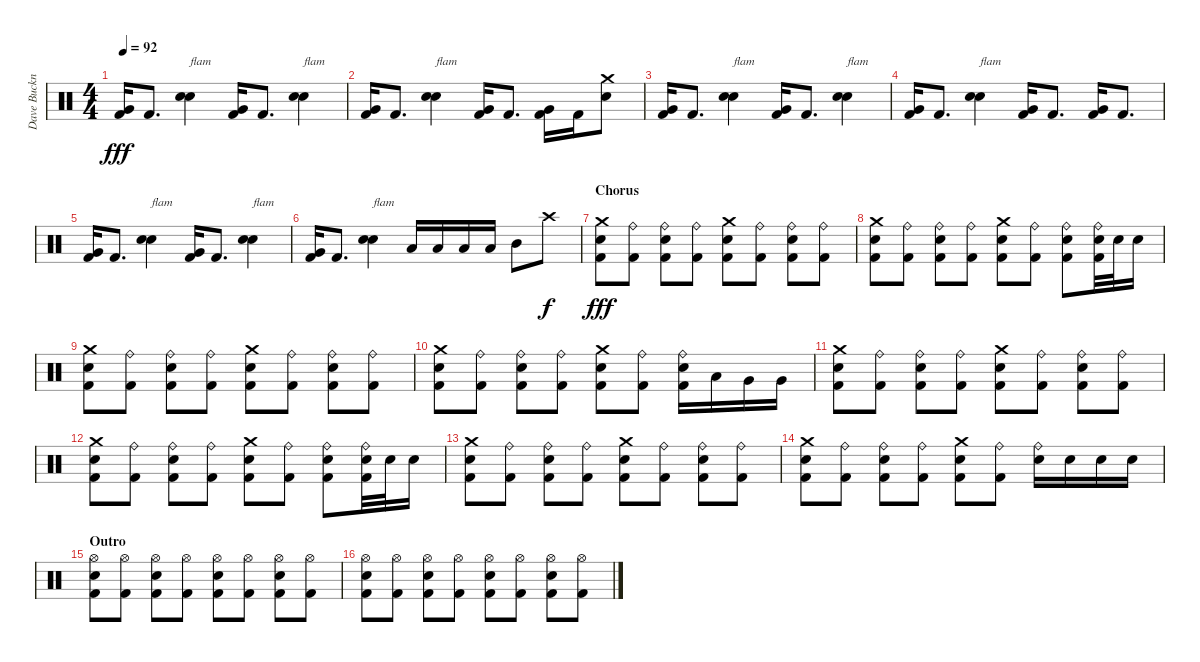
\track ("Dave Buckner" "Dave Buckn") {instrument percussion}
\staff {score}
\articulation defaults
\ts (4 4)
\tempo 92
\clef neutral
\ks c
("Very Low Tom (hit)" "Kick (hit) 2").16{dy fff} "Kick (hit) 2".8{d} ("Electric Snare (hit)" "Electric Snare (hit)").4{bd 120 txt "flam"} ("Very Low Tom (hit)" "Kick (hit) 2").16 "Kick (hit) 2".8{d} ("Electric Snare (hit)" "Electric Snare (hit)").4{bd 120 txt "flam"} |
("Very Low Tom (hit)" "Kick (hit) 2").16 "Kick (hit) 2".8{d} ("Electric Snare (hit)" "Electric Snare (hit)").4{bd 120 txt "flam"} ("Very Low Tom (hit)" "Kick (hit) 2").16 "Kick (hit) 2".8{d} ("Very Low Tom (hit)" "Kick (hit) 2").16 "Kick (hit) 2".16 ("Crash medium (hit)" "Electric Snare (hit)").8 |
("Very Low Tom (hit)" "Kick (hit) 2").16 "Kick (hit) 2".8{d} ("Electric Snare (hit)" "Electric Snare (hit)").4{bd 120 txt "flam"} ("Very Low Tom (hit)" "Kick (hit) 2").16 "Kick (hit) 2".8{d} ("Electric Snare (hit)" "Electric Snare (hit)").4{bd 120 txt "flam"} |
("Very Low Tom (hit)" "Kick (hit) 2").16 "Kick (hit) 2".8{d} ("Electric Snare (hit)" "Electric Snare (hit)").4{bd 120 txt "flam"} ("Very Low Tom (hit)" "Kick (hit) 2").16 "Kick (hit) 2".8{d} ("Very Low Tom (hit)" "Kick (hit) 2").16 "Kick (hit) 2".8{d} |
("Very Low Tom (hit)" "Kick (hit) 2").16 "Kick (hit) 2".8{d} ("Electric Snare (hit)" "Electric Snare (hit)").4{bd 120 txt "flam"} ("Very Low Tom (hit)" "Kick (hit) 2").16 "Kick (hit) 2".8{d} ("Electric Snare (hit)" "Electric Snare (hit)").4{bd 120 txt "flam"} |
("Very Low Tom (hit)" "Kick (hit) 2").16 "Kick (hit) 2".8{d} ("Electric Snare (hit)" "Electric Snare (hit)").4{bd 120 txt "flam"} "Low Tom (hit)".16 "Low Tom (hit)".16 "Low Tom (hit)".16 "Low Tom (hit)".16 "Mid Tom (hit)".8 "Crash high (hit)".8{dy f} |
\section ("" "Chorus")
("Crash medium (hit)" "Electric Snare (hit)" "Kick (hit) 2").8{dy fff} ("Ride (bell)" "Kick (hit) 2").8 ("Ride (bell)" "Electric Snare (hit)" "Kick (hit) 2").8 ("Ride (bell)" "Kick (hit) 2").8 ("Crash medium (hit)" "Electric Snare (hit)" "Kick (hit) 2").8 ("Ride (bell)" "Kick (hit) 2").8 ("Ride (bell)" "Electric Snare (hit)" "Kick (hit) 2").8 ("Ride (bell)" "Kick (hit) 2").8 |
("Crash medium (hit)" "Electric Snare (hit)" "Kick (hit) 2").8 ("Ride (bell)" "Kick (hit) 2").8 ("Ride (bell)" "Electric Snare (hit)" "Kick (hit) 2").8 ("Ride (bell)" "Kick (hit) 2").8 ("Crash medium (hit)" "Electric Snare (hit)" "Kick (hit) 2").8 ("Ride (bell)" "Kick (hit) 2").8 ("Ride (bell)" "Electric Snare (hit)" "Kick (hit) 2").8 ("Ride (bell)" "Electric Snare (hit)" "Kick (hit) 2").32 "Electric Snare (hit)".32 "Electric Snare (hit)".16 |
("Crash medium (hit)" "Electric Snare (hit)" "Kick (hit) 2").8 ("Ride (bell)" "Kick (hit) 2").8 ("Ride (bell)" "Electric Snare (hit)" "Kick (hit) 2").8 ("Ride (bell)" "Kick (hit) 2").8 ("Crash medium (hit)" "Electric Snare (hit)" "Kick (hit) 2").8 ("Ride (bell)" "Kick (hit) 2").8 ("Ride (bell)" "Electric Snare (hit)" "Kick (hit) 2").8 ("Ride (bell)" "Kick (hit) 2").8 |
("Crash medium (hit)" "Electric Snare (hit)" "Kick (hit) 2").8 ("Ride (bell)" "Kick (hit) 2").8 ("Ride (bell)" "Electric Snare (hit)" "Kick (hit) 2").8 ("Ride (bell)" "Kick (hit) 2").8 ("Crash medium (hit)" "Electric Snare (hit)" "Kick (hit) 2").8 ("Ride (bell)" "Kick (hit) 2").8 ("Ride (bell)" "Electric Snare (hit)" "Kick (hit) 2").16 "Low Tom (hit)".16 "Very Low Tom (hit)".16 "Very Low Tom (hit)".16 |
("Crash medium (hit)" "Electric Snare (hit)" "Kick (hit) 2").8 ("Ride (bell)" "Kick (hit) 2").8 ("Ride (bell)" "Electric Snare (hit)" "Kick (hit) 2").8 ("Ride (bell)" "Kick (hit) 2").8 ("Crash medium (hit)" "Electric Snare (hit)" "Kick (hit) 2").8 ("Ride (bell)" "Kick (hit) 2").8 ("Ride (bell)" "Electric Snare (hit)" "Kick (hit) 2").8 ("Ride (bell)" "Kick (hit) 2").8 |
("Crash medium (hit)" "Electric Snare (hit)" "Kick (hit) 2").8 ("Ride (bell)" "Kick (hit) 2").8 ("Ride (bell)" "Electric Snare (hit)" "Kick (hit) 2").8 ("Ride (bell)" "Kick (hit) 2").8 ("Crash medium (hit)" "Electric Snare (hit)" "Kick (hit) 2").8 ("Ride (bell)" "Kick (hit) 2").8 ("Ride (bell)" "Electric Snare (hit)" "Kick (hit) 2").8 ("Ride (bell)" "Electric Snare (hit)" "Kick (hit) 2").32 "Electric Snare (hit)".32 "Electric Snare (hit)".16 |
("Crash medium (hit)" "Electric Snare (hit)" "Kick (hit) 2").8 ("Ride (bell)" "Kick (hit) 2").8 ("Ride (bell)" "Electric Snare (hit)" "Kick (hit) 2").8 ("Ride (bell)" "Kick (hit) 2").8 ("Crash medium (hit)" "Electric Snare (hit)" "Kick (hit) 2").8 ("Ride (bell)" "Kick (hit) 2").8 ("Ride (bell)" "Electric Snare (hit)" "Kick (hit) 2").8 ("Ride (bell)" "Kick (hit) 2").8 |
("Crash medium (hit)" "Electric Snare (hit)" "Kick (hit) 2").8 ("Ride (bell)" "Kick (hit) 2").8 ("Ride (bell)" "Electric Snare (hit)" "Kick (hit) 2").8 ("Ride (bell)" "Kick (hit) 2").8 ("Crash medium (hit)" "Electric Snare (hit)" "Kick (hit) 2").8 ("Ride (bell)" "Kick (hit) 2").8 ("Ride (bell)" "Electric Snare (hit)").16 "Electric Snare (hit)".16 "Electric Snare (hit)".16 "Electric Snare (hit)".16 |
\section ("" "Outro")
("Hi-Hat (open)" "Electric Snare (hit)" "Kick (hit) 2").8 ("Hi-Hat (open)" "Kick (hit) 2").8 ("Hi-Hat (open)" "Electric Snare (hit)" "Kick (hit) 2").8 ("Hi-Hat (open)" "Kick (hit) 2").8 ("Hi-Hat (open)" "Electric Snare (hit)" "Kick (hit) 2").8 ("Hi-Hat (open)" "Kick (hit) 2").8 ("Hi-Hat (open)" "Electric Snare (hit)" "Kick (hit) 2").8 ("Hi-Hat (open)" "Kick (hit) 2").8 |
("Hi-Hat (open)" "Electric Snare (hit)" "Kick (hit) 2").8 ("Hi-Hat (open)" "Kick (hit) 2").8 ("Hi-Hat (open)" "Electric Snare (hit)" "Kick (hit) 2").8 ("Hi-Hat (open)" "Kick (hit) 2").8 ("Hi-Hat (open)" "Electric Snare (hit)" "Kick (hit) 2").8 ("Hi-Hat (open)" "Kick (hit) 2").8 ("Hi-Hat (open)" "Electric Snare (hit)" "Kick (hit) 2").8 ("Hi-Hat (open)" "Kick (hit) 2").8
